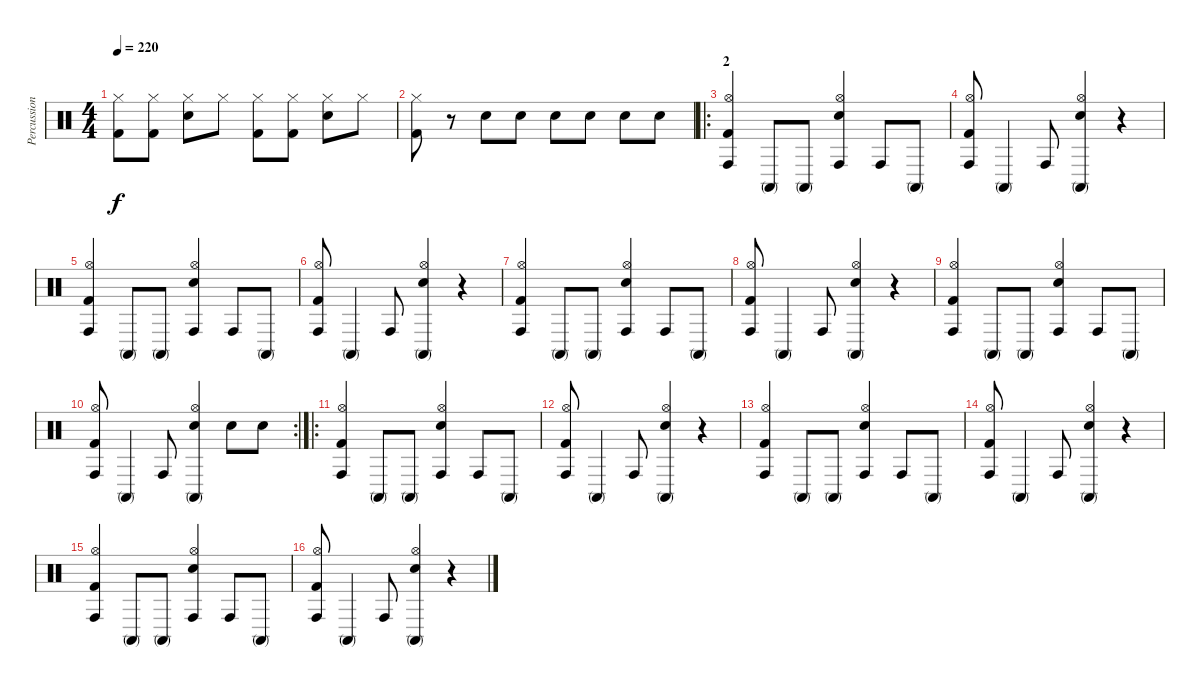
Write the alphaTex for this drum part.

\track ("Percussion" "Percussion") {instrument percussion}
\staff {score}
\articulation defaults
\ts (4 4)
\tempo 220
\clef neutral
\ks c
("Hi-Hat (closed)" "Kick (hit) 2").8{dy f} ("Hi-Hat (closed)" "Kick (hit) 2").8 ("Hi-Hat (closed)" "Snare (hit) 2").8 "Hi-Hat (closed)".8 ("Hi-Hat (closed)" "Kick (hit) 2").8 ("Hi-Hat (closed)" "Kick (hit) 2").8 ("Hi-Hat (closed)" "Snare (hit) 2").8 "Hi-Hat (closed)".8 |
("Hi-Hat (closed)" "Kick (hit) 2").8 r.8 "Snare (hit) 2".8 "Snare (hit) 2".8 "Snare (hit) 2".8 "Snare (hit) 2".8 "Snare (hit) 2".8 "Snare (hit) 2".8 |
\ro
\section ("" "2")
("Hi-Hat (open)" "Conga high (hit)" "Kick (hit) 2").4 "Conga high (mute)".8 "Conga high (mute)".8 ("Hi-Hat (open)" "Conga high (hit)" "Snare (hit) 2").4 "Conga high (hit)".8 "Conga high (mute)".8 |
("Hi-Hat (open)" "Conga high (hit)" "Kick (hit) 2").8 "Conga high (mute)".4 "Conga high (hit)".8 ("Hi-Hat (open)" "Conga high (mute)" "Snare (hit) 2").4 r.4 |
("Hi-Hat (open)" "Conga high (hit)" "Kick (hit) 2").4 "Conga high (mute)".8 "Conga high (mute)".8 ("Hi-Hat (open)" "Conga high (hit)" "Snare (hit) 2").4 "Conga high (hit)".8 "Conga high (mute)".8 |
("Hi-Hat (open)" "Conga high (hit)" "Kick (hit) 2").8 "Conga high (mute)".4 "Conga high (hit)".8 ("Hi-Hat (open)" "Conga high (mute)" "Snare (hit) 2").4 r.4 |
("Hi-Hat (open)" "Conga high (hit)" "Kick (hit) 2").4 "Conga high (mute)".8 "Conga high (mute)".8 ("Hi-Hat (open)" "Conga high (hit)" "Snare (hit) 2").4 "Conga high (hit)".8 "Conga high (mute)".8 |
("Hi-Hat (open)" "Conga high (hit)" "Kick (hit) 2").8 "Conga high (mute)".4 "Conga high (hit)".8 ("Hi-Hat (open)" "Conga high (mute)" "Snare (hit) 2").4 r.4 |
("Hi-Hat (open)" "Conga high (hit)" "Kick (hit) 2").4 "Conga high (mute)".8 "Conga high (mute)".8 ("Hi-Hat (open)" "Conga high (hit)" "Snare (hit) 2").4 "Conga high (hit)".8 "Conga high (mute)".8 |
\rc 2
("Hi-Hat (open)" "Conga high (hit)" "Kick (hit) 2").8 "Conga high (mute)".4 "Conga high (hit)".8 ("Hi-Hat (open)" "Conga high (mute)" "Snare (hit) 2").4 "Snare (hit) 2".8 "Snare (hit) 2".8 |
\ro
("Hi-Hat (open)" "Conga high (hit)" "Kick (hit) 2").4 "Conga high (mute)".8 "Conga high (mute)".8 ("Hi-Hat (open)" "Conga high (hit)" "Snare (hit) 2").4 "Conga high (hit)".8 "Conga high (mute)".8 |
("Hi-Hat (open)" "Conga high (hit)" "Kick (hit) 2").8 "Conga high (mute)".4 "Conga high (hit)".8 ("Hi-Hat (open)" "Conga high (mute)" "Snare (hit) 2").4 r.4 |
("Hi-Hat (open)" "Conga high (hit)" "Kick (hit) 2").4 "Conga high (mute)".8 "Conga high (mute)".8 ("Hi-Hat (open)" "Conga high (hit)" "Snare (hit) 2").4 "Conga high (hit)".8 "Conga high (mute)".8 |
("Hi-Hat (open)" "Conga high (hit)" "Kick (hit) 2").8 "Conga high (mute)".4 "Conga high (hit)".8 ("Hi-Hat (open)" "Conga high (mute)" "Snare (hit) 2").4 r.4 |
("Hi-Hat (open)" "Conga high (hit)" "Kick (hit) 2").4 "Conga high (mute)".8 "Conga high (mute)".8 ("Hi-Hat (open)" "Conga high (hit)" "Snare (hit) 2").4 "Conga high (hit)".8 "Conga high (mute)".8 |
("Hi-Hat (open)" "Conga high (hit)" "Kick (hit) 2").8 "Conga high (mute)".4 "Conga high (hit)".8 ("Hi-Hat (open)" "Conga high (mute)" "Snare (hit) 2").4 r.4
